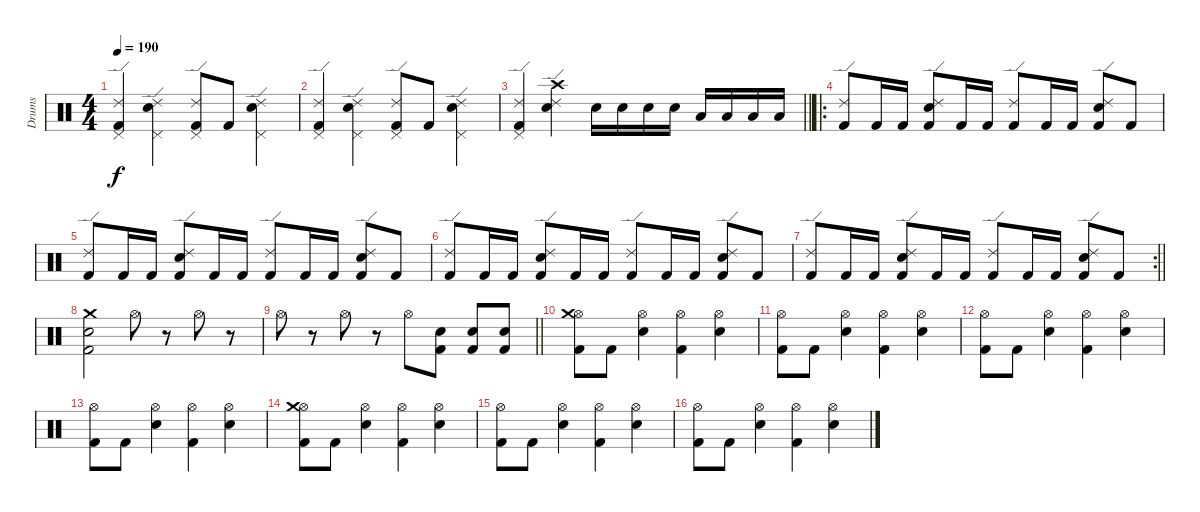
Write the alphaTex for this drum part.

\track ("Drums" "Drums") {instrument percussion}
\staff {score}
\articulation defaults
\ts (4 4)
\tempo 190
\clef neutral
\ks c
("Kick (hit) 2" "Ride (edge) 2" "Pedal Hi-Hat (hit)").4{dy f} ("Snare (hit) 2" "Ride (edge) 2" "Pedal Hi-Hat (hit)").4 ("Kick (hit) 2" "Ride (edge) 2" "Pedal Hi-Hat (hit)").8 "Kick (hit) 2".8 ("Snare (hit) 2" "Ride (edge) 2" "Pedal Hi-Hat (hit)").4 |
("Kick (hit) 2" "Ride (edge) 2" "Pedal Hi-Hat (hit)").4 ("Snare (hit) 2" "Ride (edge) 2" "Pedal Hi-Hat (hit)").4 ("Kick (hit) 2" "Ride (edge) 2" "Pedal Hi-Hat (hit)").8 "Kick (hit) 2".8 ("Snare (hit) 2" "Ride (edge) 2" "Pedal Hi-Hat (hit)").4 |
\barLineRight lightlight
("Kick (hit) 2" "Ride (edge) 2" "Pedal Hi-Hat (hit)").4 ("Snare (hit) 2" "Ride (edge) 2" "Crash high (hit)").4 "Snare (hit) 2".16 "Snare (hit) 2".16 "Snare (hit) 2".16 "Snare (hit) 2".16 "Low Tom (hit)".16 "Low Tom (hit)".16 "Low Tom (hit)".16 "Low Tom (hit)".16 |
\ro
\section ("" "")
("Kick (hit) 2" "Ride (edge) 2").8 "Kick (hit) 2".16 "Kick (hit) 2".16 ("Kick (hit) 2" "Snare (hit) 2" "Ride (edge) 2").8 "Kick (hit) 2".16 "Kick (hit) 2".16 ("Kick (hit) 2" "Ride (edge) 2").8 "Kick (hit) 2".16 "Kick (hit) 2".16 ("Kick (hit) 2" "Snare (hit) 2" "Ride (edge) 2").8 "Kick (hit) 2".8 |
("Kick (hit) 2" "Ride (edge) 2").8 "Kick (hit) 2".16 "Kick (hit) 2".16 ("Kick (hit) 2" "Snare (hit) 2" "Ride (edge) 2").8 "Kick (hit) 2".16 "Kick (hit) 2".16 ("Kick (hit) 2" "Ride (edge) 2").8 "Kick (hit) 2".16 "Kick (hit) 2".16 ("Kick (hit) 2" "Snare (hit) 2" "Ride (edge) 2").8 "Kick (hit) 2".8 |
("Kick (hit) 2" "Ride (edge) 2").8 "Kick (hit) 2".16 "Kick (hit) 2".16 ("Kick (hit) 2" "Snare (hit) 2" "Ride (edge) 2").8 "Kick (hit) 2".16 "Kick (hit) 2".16 ("Kick (hit) 2" "Ride (edge) 2").8 "Kick (hit) 2".16 "Kick (hit) 2".16 ("Kick (hit) 2" "Snare (hit) 2" "Ride (edge) 2").8 "Kick (hit) 2".8 |
\rc 2
\barLineRight lightlight
("Kick (hit) 2" "Ride (edge) 2").8 "Kick (hit) 2".16 "Kick (hit) 2".16 ("Kick (hit) 2" "Snare (hit) 2" "Ride (edge) 2").8 "Kick (hit) 2".16 "Kick (hit) 2".16 ("Kick (hit) 2" "Ride (edge) 2").8 "Kick (hit) 2".16 "Kick (hit) 2".16 ("Kick (hit) 2" "Snare (hit) 2" "Ride (edge) 2").8 "Kick (hit) 2".8 |
\section ("" "")
("Kick (hit) 2" "Snare (hit) 2" "Crash medium (hit)").2 "Hi-Hat (open)".8 r.8 "Hi-Hat (open)".8 r.8 |
\barLineRight lightlight "Hi-Hat (open)".8
r.8 "Hi-Hat (open)".8 r.8 "Hi-Hat (open)".8 ("Kick (hit) 2" "Snare (hit) 2").8 ("Kick (hit) 2" "Snare (hit) 2").8 ("Kick (hit) 2" "Snare (hit) 2").8 |
\section ("" "")
("Kick (hit) 2" "Hi-Hat (open)" "Crash medium (hit)").8 "Kick (hit) 2".8 ("Snare (hit) 2" "Hi-Hat (open)").4 ("Kick (hit) 2" "Hi-Hat (open)").4 ("Snare (hit) 2" "Hi-Hat (open)").4 |
("Kick (hit) 2" "Hi-Hat (open)").8 "Kick (hit) 2".8 ("Snare (hit) 2" "Hi-Hat (open)").4 ("Kick (hit) 2" "Hi-Hat (open)").4 ("Snare (hit) 2" "Hi-Hat (open)").4 |
("Kick (hit) 2" "Hi-Hat (open)").8 "Kick (hit) 2".8 ("Snare (hit) 2" "Hi-Hat (open)").4 ("Kick (hit) 2" "Hi-Hat (open)").4 ("Snare (hit) 2" "Hi-Hat (open)").4 |
("Kick (hit) 2" "Hi-Hat (open)").8 "Kick (hit) 2".8 ("Snare (hit) 2" "Hi-Hat (open)").4 ("Kick (hit) 2" "Hi-Hat (open)").4 ("Snare (hit) 2" "Hi-Hat (open)").4 |
("Kick (hit) 2" "Hi-Hat (open)" "Crash medium (hit)").8 "Kick (hit) 2".8 ("Snare (hit) 2" "Hi-Hat (open)").4 ("Kick (hit) 2" "Hi-Hat (open)").4 ("Snare (hit) 2" "Hi-Hat (open)").4 |
("Kick (hit) 2" "Hi-Hat (open)").8 "Kick (hit) 2".8 ("Snare (hit) 2" "Hi-Hat (open)").4 ("Kick (hit) 2" "Hi-Hat (open)").4 ("Snare (hit) 2" "Hi-Hat (open)").4 |
("Kick (hit) 2" "Hi-Hat (open)").8 "Kick (hit) 2".8 ("Snare (hit) 2" "Hi-Hat (open)").4 ("Kick (hit) 2" "Hi-Hat (open)").4 ("Snare (hit) 2" "Hi-Hat (open)").4
